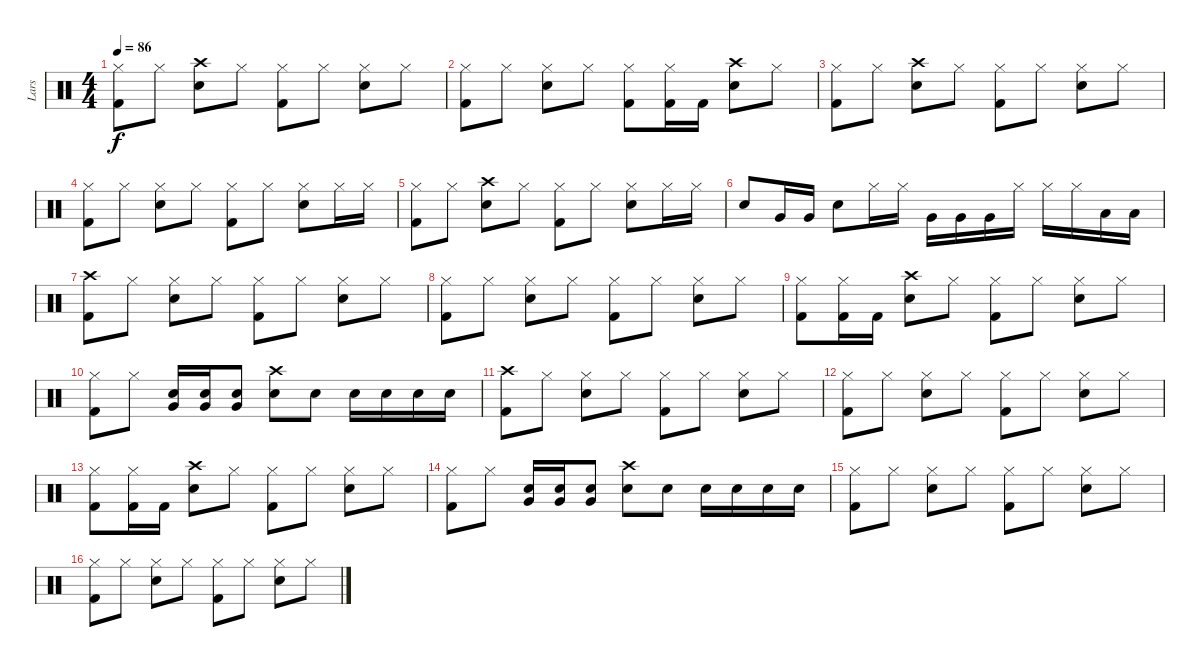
\track ("Lars" "Lars") {instrument percussion}
\staff {score}
\articulation defaults
\ts (4 4)
\tempo 86
\clef neutral
\ks c
("Hi-Hat (closed)" "Kick (hit) 2").8{dy f} "Hi-Hat (closed)".8 ("Crash high (hit)" "Electric Snare (hit)").8 "Hi-Hat (closed)".8 ("Hi-Hat (closed)" "Kick (hit) 2").8 "Hi-Hat (closed)".8 ("Hi-Hat (closed)" "Electric Snare (hit)").8 "Hi-Hat (closed)".8 |
("Hi-Hat (closed)" "Kick (hit) 2").8 "Hi-Hat (closed)".8 ("Hi-Hat (closed)" "Electric Snare (hit)").8 "Hi-Hat (closed)".8 ("Hi-Hat (closed)" "Kick (hit) 2").8 ("Hi-Hat (closed)" "Kick (hit) 2").16 "Kick (hit) 2".16 ("Crash high (hit)" "Electric Snare (hit)").8 "Hi-Hat (closed)".8 |
("Hi-Hat (closed)" "Kick (hit) 2").8 "Hi-Hat (closed)".8 ("Crash high (hit)" "Electric Snare (hit)").8 "Hi-Hat (closed)".8 ("Hi-Hat (closed)" "Kick (hit) 2").8 "Hi-Hat (closed)".8 ("Hi-Hat (closed)" "Electric Snare (hit)").8 "Hi-Hat (closed)".8 |
("Hi-Hat (closed)" "Kick (hit) 2").8 "Hi-Hat (closed)".8 ("Hi-Hat (closed)" "Electric Snare (hit)").8 "Hi-Hat (closed)".8 ("Hi-Hat (closed)" "Kick (hit) 2").8 "Hi-Hat (closed)".8 ("Hi-Hat (closed)" "Electric Snare (hit)").8 "Hi-Hat (closed)".16 "Hi-Hat (closed)".16 |
("Hi-Hat (closed)" "Kick (hit) 2").8 "Hi-Hat (closed)".8 ("Crash high (hit)" "Electric Snare (hit)").8 "Hi-Hat (closed)".8 ("Hi-Hat (closed)" "Kick (hit) 2").8 "Hi-Hat (closed)".8 ("Hi-Hat (closed)" "Electric Snare (hit)").8 "Hi-Hat (closed)".16 "Hi-Hat (closed)".16 |
"Electric Snare (hit)".8 "Very Low Tom (hit)".16 "Very Low Tom (hit)".16 "Electric Snare (hit)".8 "Hi-Hat (closed)".16 "Hi-Hat (closed)".16 "Very Low Tom (hit)".16 "Very Low Tom (hit)".16 "Very Low Tom (hit)".16 "Hi-Hat (closed)".16 "Hi-Hat (closed)".16 "Hi-Hat (closed)".16 "Low Tom (hit)".16 "Low Tom (hit)".16 |
("Crash high (hit)" "Kick (hit) 2").8 "Hi-Hat (closed)".8 ("Hi-Hat (closed)" "Electric Snare (hit)").8 "Hi-Hat (closed)".8 ("Hi-Hat (closed)" "Kick (hit) 2").8 "Hi-Hat (closed)".8 ("Hi-Hat (closed)" "Electric Snare (hit)").8 "Hi-Hat (closed)".8 |
("Hi-Hat (closed)" "Kick (hit) 2").8 "Hi-Hat (closed)".8 ("Hi-Hat (closed)" "Electric Snare (hit)").8 "Hi-Hat (closed)".8 ("Hi-Hat (closed)" "Kick (hit) 2").8 "Hi-Hat (closed)".8 ("Hi-Hat (closed)" "Electric Snare (hit)").8 "Hi-Hat (closed)".8 |
("Hi-Hat (closed)" "Kick (hit) 2").8 ("Hi-Hat (closed)" "Kick (hit) 2").16 "Kick (hit) 2".16 ("Crash high (hit)" "Electric Snare (hit)").8 "Hi-Hat (closed)".8 ("Hi-Hat (closed)" "Kick (hit) 2").8 "Hi-Hat (closed)".8 ("Hi-Hat (closed)" "Electric Snare (hit)").8 "Hi-Hat (closed)".8 |
("Hi-Hat (closed)" "Kick (hit) 2").8 "Hi-Hat (closed)".8 ("Electric Snare (hit)" "Very Low Tom (hit)").16 ("Electric Snare (hit)" "Very Low Tom (hit)").16 ("Electric Snare (hit)" "Very Low Tom (hit)").8 ("Crash high (hit)" "Electric Snare (hit)").8 "Electric Snare (hit)".8 "Electric Snare (hit)".16 "Electric Snare (hit)".16 "Electric Snare (hit)".16 "Electric Snare (hit)".16 |
("Crash high (hit)" "Kick (hit) 2").8 "Hi-Hat (closed)".8 ("Hi-Hat (closed)" "Electric Snare (hit)").8 "Hi-Hat (closed)".8 ("Hi-Hat (closed)" "Kick (hit) 2").8 "Hi-Hat (closed)".8 ("Hi-Hat (closed)" "Electric Snare (hit)").8 "Hi-Hat (closed)".8 |
("Hi-Hat (closed)" "Kick (hit) 2").8 "Hi-Hat (closed)".8 ("Hi-Hat (closed)" "Electric Snare (hit)").8 "Hi-Hat (closed)".8 ("Hi-Hat (closed)" "Kick (hit) 2").8 "Hi-Hat (closed)".8 ("Hi-Hat (closed)" "Electric Snare (hit)").8 "Hi-Hat (closed)".8 |
("Hi-Hat (closed)" "Kick (hit) 2").8 ("Hi-Hat (closed)" "Kick (hit) 2").16 "Kick (hit) 2".16 ("Crash high (hit)" "Electric Snare (hit)").8 "Hi-Hat (closed)".8 ("Hi-Hat (closed)" "Kick (hit) 2").8 "Hi-Hat (closed)".8 ("Hi-Hat (closed)" "Electric Snare (hit)").8 "Hi-Hat (closed)".8 |
("Hi-Hat (closed)" "Kick (hit) 2").8 "Hi-Hat (closed)".8 ("Electric Snare (hit)" "Very Low Tom (hit)").16 ("Electric Snare (hit)" "Very Low Tom (hit)").16 ("Electric Snare (hit)" "Very Low Tom (hit)").8 ("Crash high (hit)" "Electric Snare (hit)").8 "Electric Snare (hit)".8 "Electric Snare (hit)".16 "Electric Snare (hit)".16 "Electric Snare (hit)".16 "Electric Snare (hit)".16 |
("Hi-Hat (closed)" "Kick (hit) 2").8 "Hi-Hat (closed)".8 ("Hi-Hat (closed)" "Electric Snare (hit)").8 "Hi-Hat (closed)".8 ("Hi-Hat (closed)" "Kick (hit) 2").8 "Hi-Hat (closed)".8 ("Hi-Hat (closed)" "Electric Snare (hit)").8 "Hi-Hat (closed)".8 |
("Hi-Hat (closed)" "Kick (hit) 2").8 "Hi-Hat (closed)".8 ("Hi-Hat (closed)" "Electric Snare (hit)").8 "Hi-Hat (closed)".8 ("Hi-Hat (closed)" "Kick (hit) 2").8 "Hi-Hat (closed)".8 ("Hi-Hat (closed)" "Electric Snare (hit)").8 "Hi-Hat (closed)".8
